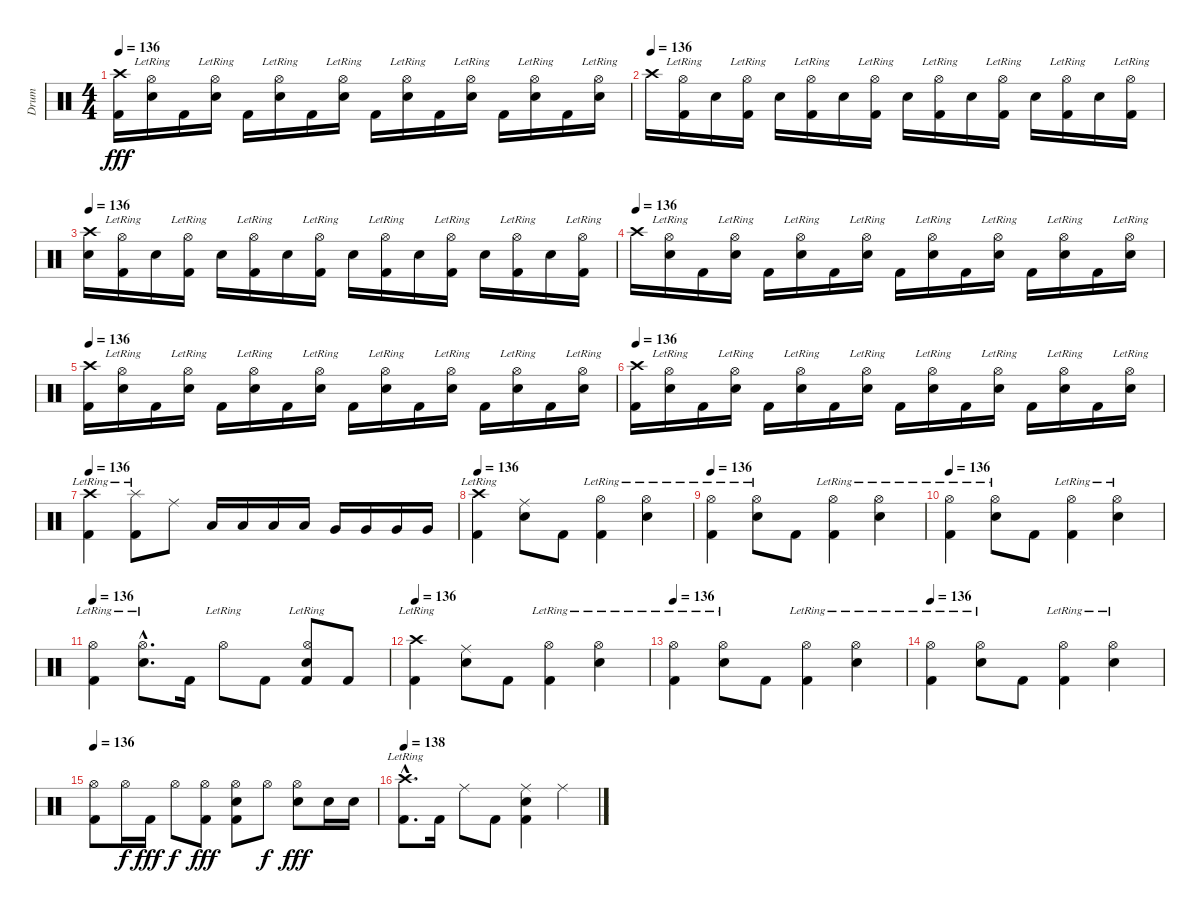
\track ("Drum" "Drum") {instrument percussion}
\staff {score}
\articulation defaults
\ts (4 4)
\tempo 136
\clef neutral
\ks c
("Crash high (hit)" "Kick (hit) 2").16{dy fff} ("Hi-Hat (open)"{lr} "Electric Snare (hit)").16 "Kick (hit) 2".16 ("Hi-Hat (open)"{lr} "Electric Snare (hit)").16 "Kick (hit) 2".16 ("Hi-Hat (open)"{lr} "Electric Snare (hit)").16 "Kick (hit) 2".16 ("Hi-Hat (open)"{lr} "Electric Snare (hit)").16 "Kick (hit) 2".16 ("Hi-Hat (open)"{lr} "Electric Snare (hit)").16 "Kick (hit) 2".16 ("Hi-Hat (open)"{lr} "Electric Snare (hit)").16 "Kick (hit) 2".16 ("Hi-Hat (open)"{lr} "Electric Snare (hit)").16 "Kick (hit) 2".16 ("Hi-Hat (open)"{lr} "Electric Snare (hit)").16 |
\tempo (136)
"Crash high (hit)".16 ("Hi-Hat (open)"{lr} "Kick (hit) 2").16 "Electric Snare (hit)".16 ("Hi-Hat (open)"{lr} "Kick (hit) 2").16 "Electric Snare (hit)".16 ("Hi-Hat (open)"{lr} "Kick (hit) 2").16 "Electric Snare (hit)".16 ("Hi-Hat (open)"{lr} "Kick (hit) 2").16 "Electric Snare (hit)".16 ("Hi-Hat (open)"{lr} "Kick (hit) 2").16 "Electric Snare (hit)".16 ("Hi-Hat (open)"{lr} "Kick (hit) 2").16 "Electric Snare (hit)".16 ("Hi-Hat (open)"{lr} "Kick (hit) 2").16 "Electric Snare (hit)".16 ("Hi-Hat (open)"{lr} "Kick (hit) 2").16 |
\tempo 136
("Crash high (hit)" "Electric Snare (hit)").16 ("Hi-Hat (open)"{lr} "Kick (hit) 2").16 "Electric Snare (hit)".16 ("Hi-Hat (open)"{lr} "Kick (hit) 2").16 "Electric Snare (hit)".16 ("Hi-Hat (open)"{lr} "Kick (hit) 2").16 "Electric Snare (hit)".16 ("Hi-Hat (open)"{lr} "Kick (hit) 2").16 "Electric Snare (hit)".16 ("Hi-Hat (open)"{lr} "Kick (hit) 2").16 "Electric Snare (hit)".16 ("Hi-Hat (open)"{lr} "Kick (hit) 2").16 "Electric Snare (hit)".16 ("Hi-Hat (open)"{lr} "Kick (hit) 2").16 "Electric Snare (hit)".16 ("Hi-Hat (open)"{lr} "Kick (hit) 2").16 |
\tempo (136)
"Crash high (hit)".16 ("Hi-Hat (open)"{lr} "Electric Snare (hit)").16 "Kick (hit) 2".16 ("Hi-Hat (open)"{lr} "Electric Snare (hit)").16 "Kick (hit) 2".16 ("Hi-Hat (open)"{lr} "Electric Snare (hit)").16 "Kick (hit) 2".16 ("Hi-Hat (open)"{lr} "Electric Snare (hit)").16 "Kick (hit) 2".16 ("Hi-Hat (open)"{lr} "Electric Snare (hit)").16 "Kick (hit) 2".16 ("Hi-Hat (open)"{lr} "Electric Snare (hit)").16 "Kick (hit) 2".16 ("Hi-Hat (open)"{lr} "Electric Snare (hit)").16 "Kick (hit) 2".16 ("Hi-Hat (open)"{lr} "Electric Snare (hit)").16 |
\tempo 136
("Crash high (hit)" "Kick (hit) 2").16 ("Hi-Hat (open)"{lr} "Electric Snare (hit)").16 "Kick (hit) 2".16 ("Hi-Hat (open)"{lr} "Electric Snare (hit)").16 "Kick (hit) 2".16 ("Hi-Hat (open)"{lr} "Electric Snare (hit)").16 "Kick (hit) 2".16 ("Hi-Hat (open)"{lr} "Electric Snare (hit)").16 "Kick (hit) 2".16 ("Hi-Hat (open)"{lr} "Electric Snare (hit)").16 "Kick (hit) 2".16 ("Hi-Hat (open)"{lr} "Electric Snare (hit)").16 "Kick (hit) 2".16 ("Hi-Hat (open)"{lr} "Electric Snare (hit)").16 "Kick (hit) 2".16 ("Hi-Hat (open)"{lr} "Electric Snare (hit)").16 |
\tempo 136
("Crash high (hit)" "Kick (hit) 2").16 ("Hi-Hat (open)"{lr} "Electric Snare (hit)").16 "Kick (hit) 2".16 ("Hi-Hat (open)"{lr} "Electric Snare (hit)").16 "Kick (hit) 2".16 ("Hi-Hat (open)"{lr} "Electric Snare (hit)").16 "Kick (hit) 2".16 ("Hi-Hat (open)"{lr} "Electric Snare (hit)").16 "Kick (hit) 2".16 ("Hi-Hat (open)"{lr} "Electric Snare (hit)").16 "Kick (hit) 2".16 ("Hi-Hat (open)"{lr} "Electric Snare (hit)").16 "Kick (hit) 2".16 ("Hi-Hat (open)"{lr} "Electric Snare (hit)").16 "Kick (hit) 2".16 ("Hi-Hat (open)"{lr} "Electric Snare (hit)").16 |
\tempo 136
("Crash high (hit)"{lr} "Kick (hit) 2").4 ("Splash (hit)"{lr} "Kick (hit) 2").8 "Ride (middle)".8 "Low Tom (hit)".16 "Low Tom (hit)".16 "Low Tom (hit)".16 "Low Tom (hit)".16 "Very Low Tom (hit)".16 "Very Low Tom (hit)".16 "Very Low Tom (hit)".16 "Very Low Tom (hit)".16 |
\tempo 136
("Crash high (hit)"{lr} "Kick (hit) 2").4 ("Ride (middle)" "Electric Snare (hit)").8 "Kick (hit) 2".8 ("Hi-Hat (open)"{lr} "Kick (hit) 2").4 ("Hi-Hat (open)"{lr} "Electric Snare (hit)").4 |
\tempo 136
("Hi-Hat (open)"{lr} "Kick (hit) 2").4 ("Hi-Hat (open)"{lr} "Electric Snare (hit)").8 "Kick (hit) 2".8 ("Hi-Hat (open)"{lr} "Kick (hit) 2").4 ("Hi-Hat (open)"{lr} "Electric Snare (hit)").4 |
\tempo 136
("Hi-Hat (open)"{lr} "Kick (hit) 2").4 ("Hi-Hat (open)"{lr} "Electric Snare (hit)").8 "Kick (hit) 2".8 ("Hi-Hat (open)"{lr} "Kick (hit) 2").4 ("Hi-Hat (open)"{lr} "Electric Snare (hit)").4 |
\tempo 136
("Hi-Hat (open)"{lr} "Kick (hit) 2").4 ("Hi-Hat (open)"{hac lr} "Electric Snare (hit)"{hac}).8{d} "Kick (hit) 2".16 "Hi-Hat (open)"{lr}.8 "Kick (hit) 2".8 ("Hi-Hat (open)"{lr} "Electric Snare (hit)" "Kick (hit) 2").8 "Kick (hit) 2".8 |
\tempo 136
("Crash high (hit)"{lr} "Kick (hit) 2").4 ("Ride (middle)" "Electric Snare (hit)").8 "Kick (hit) 2".8 ("Hi-Hat (open)"{lr} "Kick (hit) 2").4 ("Hi-Hat (open)"{lr} "Electric Snare (hit)").4 |
\tempo 136
("Hi-Hat (open)"{lr} "Kick (hit) 2").4 ("Hi-Hat (open)"{lr} "Electric Snare (hit)").8 "Kick (hit) 2".8 ("Hi-Hat (open)"{lr} "Kick (hit) 2").4 ("Hi-Hat (open)"{lr} "Electric Snare (hit)").4 |
\tempo 136
("Hi-Hat (open)"{lr} "Kick (hit) 2").4 ("Hi-Hat (open)"{lr} "Electric Snare (hit)").8 "Kick (hit) 2".8 ("Hi-Hat (open)"{lr} "Kick (hit) 2").4 ("Hi-Hat (open)"{lr} "Electric Snare (hit)").4 |
\tempo 136
("Hi-Hat (open)" "Kick (hit) 2").8 "Hi-Hat (open)".16{dy f} "Kick (hit) 2".16{dy fff} "Hi-Hat (open)".8{dy f} ("Hi-Hat (open)" "Kick (hit) 2").8{dy fff} ("Hi-Hat (open)" "Electric Snare (hit)" "Kick (hit) 2").8 "Hi-Hat (open)".8{dy f} ("Hi-Hat (open)" "Electric Snare (hit)").8{dy fff} "Electric Snare (hit)".16 "Electric Snare (hit)".16 |
\tempo 138
("Crash high (hit)"{hac lr} "Kick (hit) 2"{hac}).8{d} "Kick (hit) 2".16 "Ride (middle)".8 "Kick (hit) 2".8 ("Ride (middle)" "Electric Snare (hit)" "Kick (hit) 2").4 "Ride (middle)".4
